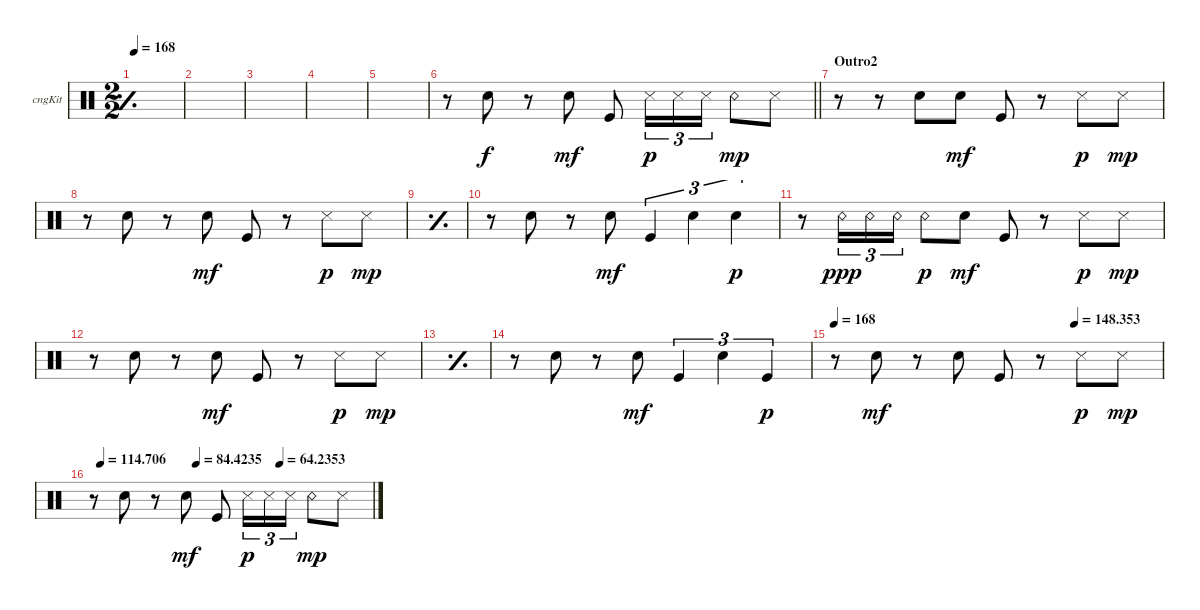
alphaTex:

\bracketExtendMode groupsimilarinstruments
\multiTrackTrackNamePolicy hidden
\firstSystemTrackNameOrientation horizontal
\otherSystemsTrackNameOrientation horizontal
\track ("Congas" "cngKit") {instrument percussion}
\staff {score}
\articulation defaults
\ts (2 2)
\tempo 168
\clef neutral
\simile simple
\ks c
|
|
|
|
|
\barLineRight lightlight
r.8 "Snare (hit) 2".8 r.8 "Snare (hit) 2".8{dy mf} "Kick (hit)".8 "Snare (side stick) 3".16{tu (3 2) dy p} "Snare (side stick) 3".16{tu (3 2)} "Snare (side stick) 3".16{tu (3 2)} "Snare (rim shot)".8{dy mp} "Snare (side stick) 3".8 |
\section ("" "Outro2")
r.8 r.8 "Snare (hit) 2".8 "Snare (hit) 2".8{dy mf} "Kick (hit)".8 r.8 "Snare (side stick) 3".8{dy p} "Snare (side stick) 3".8{dy mp} |
r.8 "Snare (hit) 2".8 r.8 "Snare (hit) 2".8{dy mf} "Kick (hit)".8 r.8 "Snare (side stick) 3".8{dy p} "Snare (side stick) 3".8{dy mp} |
\simile simple
|
\simile none
r.8 "Snare (hit) 2".8 r.8 "Snare (hit) 2".8{dy mf} "Kick (hit)".4{tu (3 2)} "Snare (hit) 2".4{tu (3 2)} "Snare (hit) 2".4{tu (3 2) dy p} |
r.8 "Snare (rim shot)".16{tu (3 2) dy ppp} "Snare (rim shot)".16{tu (3 2)} "Snare (rim shot)".16{tu (3 2)} "Snare (rim shot)".8{dy p} "Snare (hit) 2".8{dy mf} "Kick (hit)".8 r.8 "Snare (side stick) 3".8{dy p} "Snare (side stick) 3".8{dy mp} |
r.8 "Snare (hit) 2".8 r.8 "Snare (hit) 2".8{dy mf} "Kick (hit)".8 r.8 "Snare (side stick) 3".8{dy p} "Snare (side stick) 3".8{dy mp} |
\simile simple
\scale
0.2 |
\simile none
\scale
0.3875 r.8 "Snare (hit) 2".8 r.8 "Snare (hit) 2".8{dy mf} "Kick (hit)".4{tu (3 2)} "Snare (hit) 2".4{tu (3 2)} "Kick (hit)".4{tu (3 2) dy p} |
\tempo 168
\tempo (148.353 0.734266)
\scale
0.4125 r.8 "Snare (hit) 2".8{dy mf} r.8 "Snare (hit) 2".8 "Kick (hit)".8 r.8 "Snare (side stick) 3".8{dy p} "Snare (side stick) 3".8{dy mp} |
\tempo (114.706 0.027972)
\tempo (84.4235 0.370629)
\tempo (64.2353 0.66875)
r.8 "Snare (hit) 2".8 r.8 "Snare (hit) 2".8{dy mf} "Kick (hit)".8 "Snare (side stick) 3".16{tu (3 2) dy p} "Snare (side stick) 3".16{tu (3 2)} "Snare (side stick) 3".16{tu (3 2)} "Snare (rim shot)".8{dy mp} "Snare (side stick) 3".8
